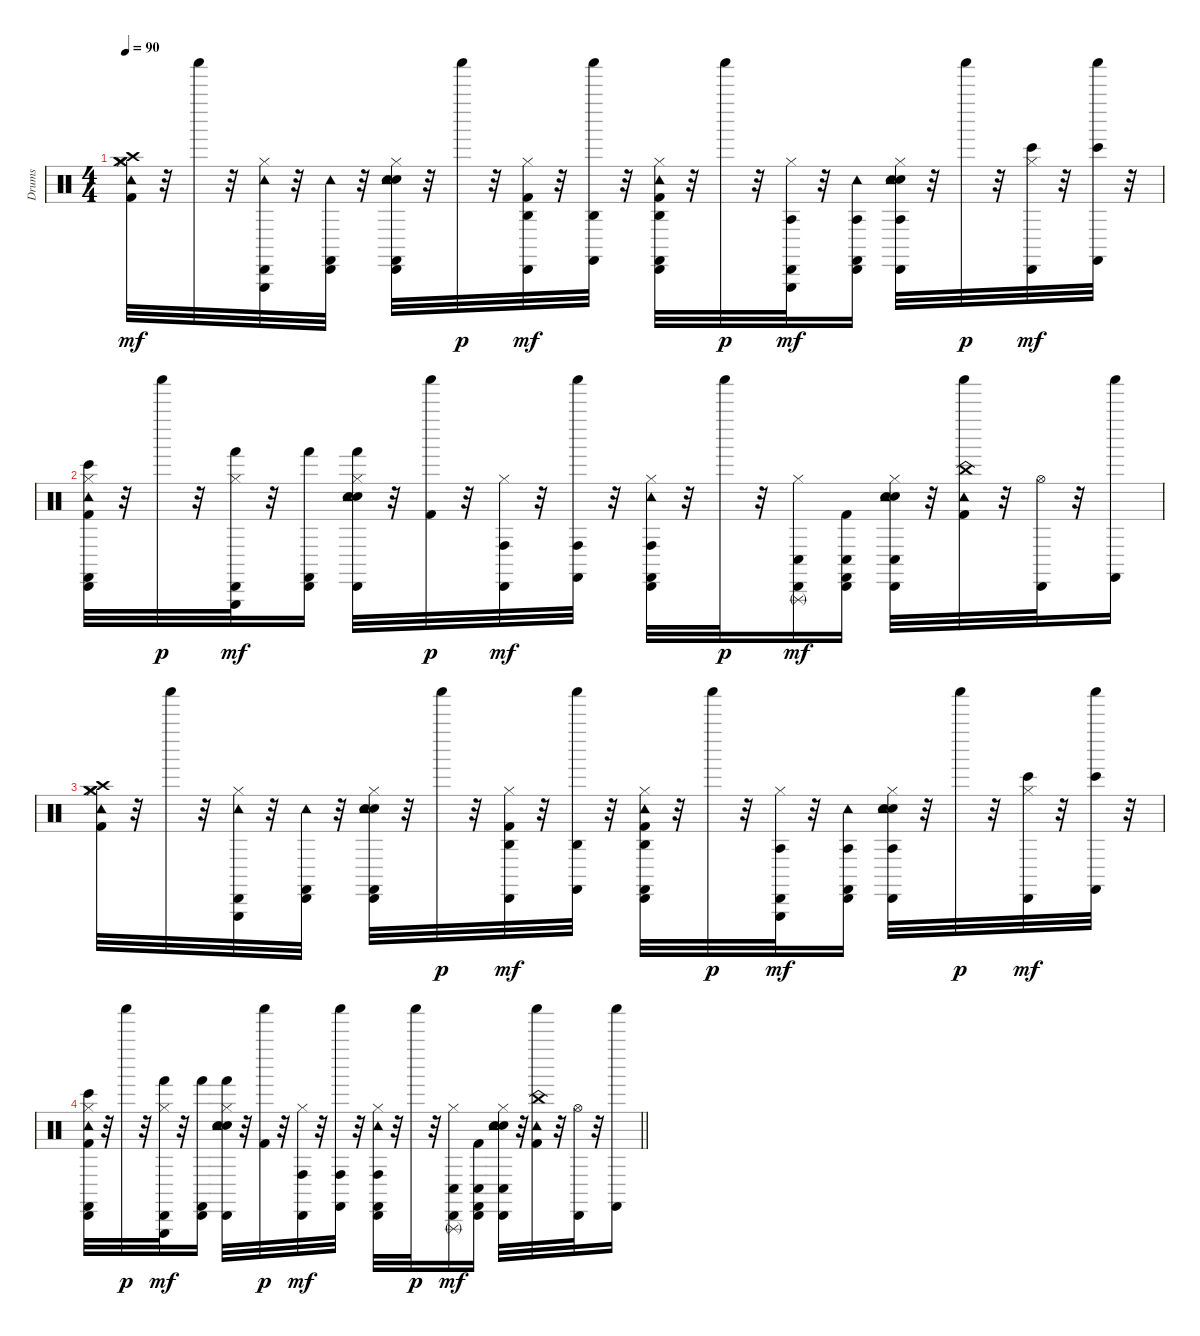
\track ("Drums" "Drums") {instrument percussion}
\staff {score}
\articulation defaults
\ts (4 4)
\tempo 90
\clef neutral
\ks c
("Hi-Hat (closed)" "Kick (hit) 2" "Tambourine (hit)" "Crash high (hit)" "Crash medium (hit)" "Hi-Hat (closed)").32{dy mf} r.32 "Shaker (hit)".32 r.32 ("Hi-Hat (closed)" "Tambourine (hit)" "Cabasa (hit)" "Triangle (hit)").32 r.32 ("Tambourine (hit)" "Cabasa (hit)" "Castanets (hit)").32 r.32 ("Electric Snare (hit)" "Hi-Hat (closed)" "Snare (hit) 2" "Tambourine (hit)" "Cabasa (hit)" "Castanets (hit)").32 r.32 "Shaker (hit)".32{dy p} r.32 ("Hi-Hat (closed)" "Kick (hit) 2" "Agogo high (hit)" "Cabasa (hit)").32{dy mf} r.32 ("Agogo high (hit)" "Shaker (hit)" "Castanets (hit)").32 r.32 ("Hi-Hat (closed)" "Kick (hit) 2" "Agogo high (hit)" "Cabasa (hit)" "Tambourine (hit)" "Castanets (hit)").32 r.32 "Shaker (hit)".32{dy p} r.32 ("Hi-Hat (closed)" "Agogo tow (hit)" "Cabasa (hit)" "Triangle (hit)").32{dy mf} r.32 ("Agogo tow (hit)" "Cabasa (hit)" "Tambourine (hit)" "Castanets (hit)").16 ("Electric Snare (hit)" "Hi-Hat (closed)" "Snare (hit) 2" "Agogo tow (hit)" "Tambourine (hit)" "Cabasa (hit)").32 r.32 "Shaker (hit)".32{dy p} r.32 ("Hi-Hat (closed)" "Bongo High (hit)" "Cabasa (hit)").32{dy mf} r.32 ("Bongo High (hit)" "Shaker (hit)" "Castanets (hit)").32 r.32 |
("Hi-Hat (closed)" "Kick (hit) 2" "Bongo High (hit)" "Cabasa (hit)" "Tambourine (hit)" "Castanets (hit)").32 r.32 "Shaker (hit)".32{dy p} r.32 ("Hi-Hat (closed)" "Hand (hit)" "Cabasa (hit)" "Triangle (hit)").32{dy mf} r.32 ("Hand (hit)" "Cabasa (hit)" "Castanets (hit)").16 ("Electric Snare (hit)" "Hi-Hat (closed)" "Snare (hit) 2" "Hand (hit)" "Cabasa (hit)" "Tambourine (hit)").32 r.32 ("Kick (hit) 2" "Shaker (hit)").32{dy p} r.32 ("Hi-Hat (closed)" "Conga high (hit)" "Cabasa (hit)").32{dy mf} r.32 ("Conga high (hit)" "Shaker (hit)" "Castanets (hit)").32 r.32 ("Hi-Hat (closed)" "Conga high (hit)" "Cabasa (hit)" "Tambourine (hit)" "Castanets (hit)").32 r.32 "Shaker (hit)".32{dy p} r.32 ("Hi-Hat (closed)" "Conga low (hit)" "Cabasa (hit)" "Triangle (rnute)").16{dy mf} ("Kick (hit) 2" "Conga low (hit)" "Cabasa (hit)" "Castanets (hit)").16 ("Electric Snare (hit)" "Hi-Hat (closed)" "Snare (hit) 2" "Conga low (hit)" "Cabasa (hit)" "Tambourine (hit)").32 r.32 ("Kick (hit) 2" "Tambourine (hit)" "Shaker (hit)" "China (hit)").32 r.32 ("Hi-Hat (open)" "Cabasa (hit)").32 r.32 ("Shaker (hit)" "Castanets (hit)").16 |
("Hi-Hat (closed)" "Kick (hit) 2" "Tambourine (hit)" "Crash high (hit)" "Crash medium (hit)" "Hi-Hat (closed)").32 r.32 "Shaker (hit)".32 r.32 ("Hi-Hat (closed)" "Tambourine (hit)" "Cabasa (hit)" "Triangle (hit)").32 r.32 ("Tambourine (hit)" "Cabasa (hit)" "Castanets (hit)").32 r.32 ("Electric Snare (hit)" "Hi-Hat (closed)" "Snare (hit) 2" "Tambourine (hit)" "Cabasa (hit)" "Castanets (hit)").32 r.32 "Shaker (hit)".32{dy p} r.32 ("Hi-Hat (closed)" "Kick (hit) 2" "Agogo high (hit)" "Cabasa (hit)").32{dy mf} r.32 ("Agogo high (hit)" "Shaker (hit)" "Castanets (hit)").32 r.32 ("Hi-Hat (closed)" "Kick (hit) 2" "Agogo high (hit)" "Cabasa (hit)" "Tambourine (hit)" "Castanets (hit)").32 r.32 "Shaker (hit)".32{dy p} r.32 ("Hi-Hat (closed)" "Agogo tow (hit)" "Cabasa (hit)" "Triangle (hit)").32{dy mf} r.32 ("Agogo tow (hit)" "Cabasa (hit)" "Tambourine (hit)" "Castanets (hit)").16 ("Electric Snare (hit)" "Hi-Hat (closed)" "Snare (hit) 2" "Agogo tow (hit)" "Tambourine (hit)" "Cabasa (hit)").32 r.32 "Shaker (hit)".32{dy p} r.32 ("Hi-Hat (closed)" "Bongo High (hit)" "Cabasa (hit)").32{dy mf} r.32 ("Bongo High (hit)" "Shaker (hit)" "Castanets (hit)").32 r.32 |
\barLineRight lightlight
("Hi-Hat (closed)" "Kick (hit) 2" "Bongo High (hit)" "Cabasa (hit)" "Tambourine (hit)" "Castanets (hit)").32 r.32 "Shaker (hit)".32{dy p} r.32 ("Hi-Hat (closed)" "Hand (hit)" "Cabasa (hit)" "Triangle (hit)").32{dy mf} r.32 ("Hand (hit)" "Cabasa (hit)" "Castanets (hit)").16 ("Electric Snare (hit)" "Hi-Hat (closed)" "Snare (hit) 2" "Hand (hit)" "Cabasa (hit)" "Tambourine (hit)").32 r.32 ("Kick (hit) 2" "Shaker (hit)").32{dy p} r.32 ("Hi-Hat (closed)" "Conga high (hit)" "Cabasa (hit)").32{dy mf} r.32 ("Conga high (hit)" "Shaker (hit)" "Castanets (hit)").32 r.32 ("Hi-Hat (closed)" "Conga high (hit)" "Cabasa (hit)" "Tambourine (hit)" "Castanets (hit)").32 r.32 "Shaker (hit)".32{dy p} r.32 ("Hi-Hat (closed)" "Conga low (hit)" "Cabasa (hit)" "Triangle (rnute)").16{dy mf} ("Kick (hit) 2" "Conga low (hit)" "Cabasa (hit)" "Castanets (hit)").16 ("Electric Snare (hit)" "Hi-Hat (closed)" "Snare (hit) 2" "Conga low (hit)" "Cabasa (hit)" "Tambourine (hit)").32 r.32 ("Kick (hit) 2" "Tambourine (hit)" "Shaker (hit)" "China (hit)").32 r.32 ("Hi-Hat (open)" "Cabasa (hit)").32 r.32 ("Shaker (hit)" "Castanets (hit)").16
